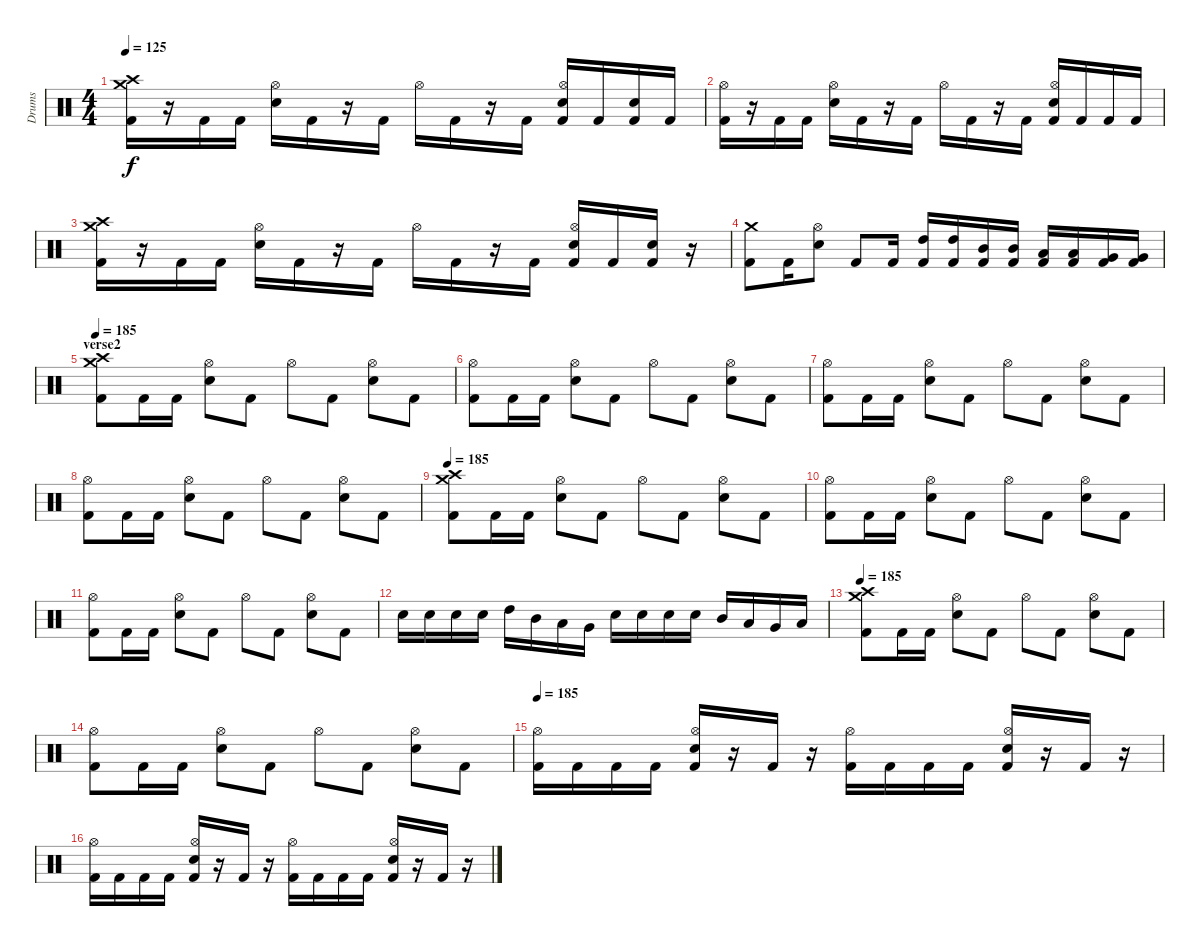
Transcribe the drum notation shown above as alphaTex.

\track ("Drums" "Drums") {instrument percussion}
\staff {score}
\articulation defaults
\ts (4 4)
\tempo 125
\clef neutral
\ks c
("Crash medium (hit)" "Crash high (hit)" "Kick (hit) 2").16{dy f} r.16 "Kick (hit) 2".16 "Kick (hit) 2".16 ("Hi-Hat (open)" "Electric Snare (hit)").16 "Kick (hit) 2".16 r.16 "Kick (hit) 2".16 "Hi-Hat (open)".16 "Kick (hit) 2".16 r.16 "Kick (hit) 2".16 ("Hi-Hat (open)" "Electric Snare (hit)" "Kick (hit) 2").16 "Kick (hit) 2".16 ("Electric Snare (hit)" "Kick (hit) 2").16 "Kick (hit) 2".16 |
("Hi-Hat (open)" "Kick (hit) 2").16 r.16 "Kick (hit) 2".16 "Kick (hit) 2".16 ("Hi-Hat (open)" "Electric Snare (hit)").16 "Kick (hit) 2".16 r.16 "Kick (hit) 2".16 "Hi-Hat (open)".16 "Kick (hit) 2".16 r.16 "Kick (hit) 2".16 ("Hi-Hat (open)" "Electric Snare (hit)" "Kick (hit) 2").16 "Kick (hit) 2".16 "Kick (hit) 2".16 "Kick (hit) 2".16 |
("Crash medium (hit)" "Crash high (hit)" "Kick (hit) 2").16 r.16 "Kick (hit) 2".16 "Kick (hit) 2".16 ("Hi-Hat (open)" "Electric Snare (hit)").16 "Kick (hit) 2".16 r.16 "Kick (hit) 2".16 "Hi-Hat (open)".16 "Kick (hit) 2".16 r.16 "Kick (hit) 2".16 ("Hi-Hat (open)" "Electric Snare (hit)" "Kick (hit) 2").16 "Kick (hit) 2".16 ("Electric Snare (hit)" "Kick (hit) 2").16 r.16 |
("Crash medium (hit)" "Kick (hit) 2").8 "Kick (hit) 2".16 ("Hi-Hat (open)" "Electric Snare (hit)").8 "Kick (hit) 2".8 "Kick (hit) 2".16 ("High Tom (hit)" "Kick (hit) 2").16 ("High Tom (hit)" "Kick (hit) 2").16 ("Mid Tom (hit)" "Kick (hit) 2").16 ("Mid Tom (hit)" "Kick (hit) 2").16 ("Low Tom (hit)" "Kick (hit) 2").16 ("Low Tom (hit)" "Kick (hit) 2").16 ("Very Low Tom (hit)" "Kick (hit) 2").16 ("Very Low Tom (hit)" "Kick (hit) 2").16 |
\section ("" "verse2")
\tempo 185
("Crash medium (hit)" "Crash high (hit)" "Kick (hit) 2").8 "Kick (hit) 2".16 "Kick (hit) 2".16 ("Hi-Hat (open)" "Electric Snare (hit)").8 "Kick (hit) 2".8 "Hi-Hat (open)".8 "Kick (hit) 2".8 ("Hi-Hat (open)" "Electric Snare (hit)").8 "Kick (hit) 2".8 |
("Hi-Hat (open)" "Kick (hit) 2").8 "Kick (hit) 2".16 "Kick (hit) 2".16 ("Hi-Hat (open)" "Electric Snare (hit)").8 "Kick (hit) 2".8 "Hi-Hat (open)".8 "Kick (hit) 2".8 ("Hi-Hat (open)" "Electric Snare (hit)").8 "Kick (hit) 2".8 |
("Hi-Hat (open)" "Kick (hit) 2").8 "Kick (hit) 2".16 "Kick (hit) 2".16 ("Hi-Hat (open)" "Electric Snare (hit)").8 "Kick (hit) 2".8 "Hi-Hat (open)".8 "Kick (hit) 2".8 ("Hi-Hat (open)" "Electric Snare (hit)").8 "Kick (hit) 2".8 |
("Hi-Hat (open)" "Kick (hit) 2").8 "Kick (hit) 2".16 "Kick (hit) 2".16 ("Hi-Hat (open)" "Electric Snare (hit)").8 "Kick (hit) 2".8 "Hi-Hat (open)".8 "Kick (hit) 2".8 ("Hi-Hat (open)" "Electric Snare (hit)").8 "Kick (hit) 2".8 |
\tempo 185
("Crash medium (hit)" "Crash high (hit)" "Kick (hit) 2").8 "Kick (hit) 2".16 "Kick (hit) 2".16 ("Hi-Hat (open)" "Electric Snare (hit)").8 "Kick (hit) 2".8 "Hi-Hat (open)".8 "Kick (hit) 2".8 ("Hi-Hat (open)" "Electric Snare (hit)").8 "Kick (hit) 2".8 |
("Hi-Hat (open)" "Kick (hit) 2").8 "Kick (hit) 2".16 "Kick (hit) 2".16 ("Hi-Hat (open)" "Electric Snare (hit)").8 "Kick (hit) 2".8 "Hi-Hat (open)".8 "Kick (hit) 2".8 ("Hi-Hat (open)" "Electric Snare (hit)").8 "Kick (hit) 2".8 |
("Hi-Hat (open)" "Kick (hit) 2").8 "Kick (hit) 2".16 "Kick (hit) 2".16 ("Hi-Hat (open)" "Electric Snare (hit)").8 "Kick (hit) 2".8 "Hi-Hat (open)".8 "Kick (hit) 2".8 ("Hi-Hat (open)" "Electric Snare (hit)").8 "Kick (hit) 2".8 |
"Electric Snare (hit)".16 "Electric Snare (hit)".16 "Electric Snare (hit)".16 "Electric Snare (hit)".16 "High Tom (hit)".16 "Mid Tom (hit)".16 "Low Tom (hit)".16 "Very Low Tom (hit)".16 "Electric Snare (hit)".16 "Electric Snare (hit)".16 "Electric Snare (hit)".16 "Electric Snare (hit)".16 "Mid Tom (hit)".16 "Low Tom (hit)".16 "Very Low Tom (hit)".16 "Low Floor Tom (hit)".16 |
\tempo 185
("Crash medium (hit)" "Crash high (hit)" "Kick (hit) 2").8 "Kick (hit) 2".16 "Kick (hit) 2".16 ("Hi-Hat (open)" "Electric Snare (hit)").8 "Kick (hit) 2".8 "Hi-Hat (open)".8 "Kick (hit) 2".8 ("Hi-Hat (open)" "Electric Snare (hit)").8 "Kick (hit) 2".8 |
("Hi-Hat (open)" "Kick (hit) 2").8 "Kick (hit) 2".16 "Kick (hit) 2".16 ("Hi-Hat (open)" "Electric Snare (hit)").8 "Kick (hit) 2".8 "Hi-Hat (open)".8 "Kick (hit) 2".8 ("Hi-Hat (open)" "Electric Snare (hit)").8 "Kick (hit) 2".8 |
\tempo 185
("Hi-Hat (open)" "Kick (hit) 2").16 "Kick (hit) 2".16 "Kick (hit) 2".16 "Kick (hit) 2".16 ("Hi-Hat (open)" "Electric Snare (hit)" "Kick (hit) 2").16 r.16 "Kick (hit) 2".16 r.16 ("Hi-Hat (open)" "Kick (hit) 2").16 "Kick (hit) 2".16 "Kick (hit) 2".16 "Kick (hit) 2".16 ("Hi-Hat (open)" "Electric Snare (hit)" "Kick (hit) 2").16 r.16 "Kick (hit) 2".16 r.16 |
("Hi-Hat (open)" "Kick (hit) 2").16 "Kick (hit) 2".16 "Kick (hit) 2".16 "Kick (hit) 2".16 ("Hi-Hat (open)" "Electric Snare (hit)" "Kick (hit) 2").16 r.16 "Kick (hit) 2".16 r.16 ("Hi-Hat (open)" "Kick (hit) 2").16 "Kick (hit) 2".16 "Kick (hit) 2".16 "Kick (hit) 2".16 ("Hi-Hat (open)" "Electric Snare (hit)" "Kick (hit) 2").16 r.16 "Kick (hit) 2".16 r.16
